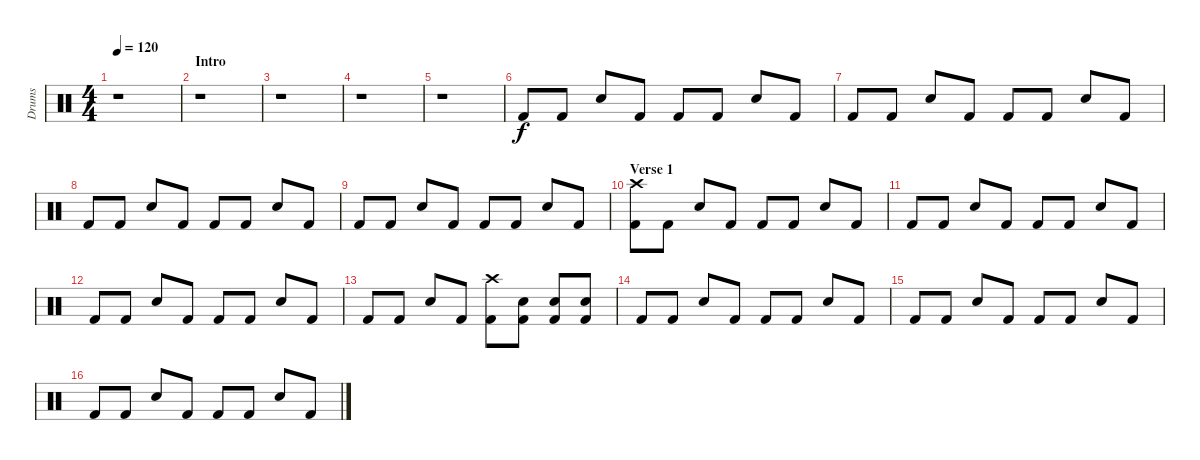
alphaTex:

\track ("Drums" "Drums") {instrument percussion}
\staff {score}
\articulation defaults
\ts (4 4)
\tempo 120
\clef neutral
\ks c
r.1{dy f} |
\section ("" "Intro")
r.1 |
r.1 |
r.1 |
r.1 |
"Kick (hit) 2".8 "Kick (hit) 2".8 "Snare (hit) 2".8 "Kick (hit) 2".8 "Kick (hit) 2".8 "Kick (hit) 2".8 "Snare (hit) 2".8 "Kick (hit) 2".8 |
"Kick (hit) 2".8 "Kick (hit) 2".8 "Snare (hit) 2".8 "Kick (hit) 2".8 "Kick (hit) 2".8 "Kick (hit) 2".8 "Snare (hit) 2".8 "Kick (hit) 2".8 |
"Kick (hit) 2".8 "Kick (hit) 2".8 "Snare (hit) 2".8 "Kick (hit) 2".8 "Kick (hit) 2".8 "Kick (hit) 2".8 "Snare (hit) 2".8 "Kick (hit) 2".8 |
"Kick (hit) 2".8 "Kick (hit) 2".8 "Snare (hit) 2".8 "Kick (hit) 2".8 "Kick (hit) 2".8 "Kick (hit) 2".8 "Snare (hit) 2".8 "Kick (hit) 2".8 |
\section ("" "Verse 1")
("Crash high (hit)" "Kick (hit) 2").8 "Kick (hit) 2".8 "Snare (hit) 2".8 "Kick (hit) 2".8 "Kick (hit) 2".8 "Kick (hit) 2".8 "Snare (hit) 2".8 "Kick (hit) 2".8 |
"Kick (hit) 2".8 "Kick (hit) 2".8 "Snare (hit) 2".8 "Kick (hit) 2".8 "Kick (hit) 2".8 "Kick (hit) 2".8 "Snare (hit) 2".8 "Kick (hit) 2".8 |
"Kick (hit) 2".8 "Kick (hit) 2".8 "Snare (hit) 2".8 "Kick (hit) 2".8 "Kick (hit) 2".8 "Kick (hit) 2".8 "Snare (hit) 2".8 "Kick (hit) 2".8 |
"Kick (hit) 2".8 "Kick (hit) 2".8 "Snare (hit) 2".8 "Kick (hit) 2".8 ("Crash high (hit)" "Kick (hit) 2").8 ("Snare (hit) 2" "Kick (hit) 2").8 ("Snare (hit) 2" "Kick (hit) 2").8 ("Snare (hit) 2" "Kick (hit) 2").8 |
"Kick (hit) 2".8 "Kick (hit) 2".8 "Snare (hit) 2".8 "Kick (hit) 2".8 "Kick (hit) 2".8 "Kick (hit) 2".8 "Snare (hit) 2".8 "Kick (hit) 2".8 |
"Kick (hit) 2".8 "Kick (hit) 2".8 "Snare (hit) 2".8 "Kick (hit) 2".8 "Kick (hit) 2".8 "Kick (hit) 2".8 "Snare (hit) 2".8 "Kick (hit) 2".8 |
"Kick (hit) 2".8 "Kick (hit) 2".8 "Snare (hit) 2".8 "Kick (hit) 2".8 "Kick (hit) 2".8 "Kick (hit) 2".8 "Snare (hit) 2".8 "Kick (hit) 2".8
